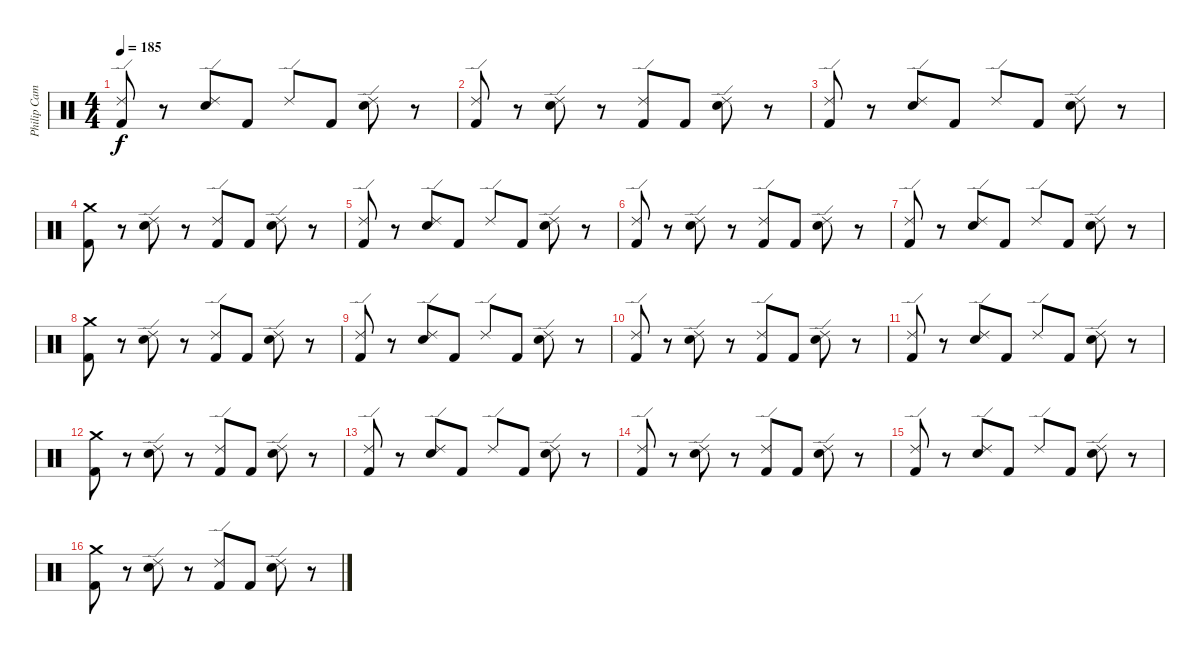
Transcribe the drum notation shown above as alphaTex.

\track ("Philip Campbell" "Philip Cam") {instrument percussion}
\staff {score}
\articulation defaults
\ts (4 4)
\tempo 185
\clef neutral
\ks c
("Ride (edge) 2" "Kick (hit) 2").8{dy f} r.8 ("Ride (edge) 2" "Electric Snare (hit)").8 "Kick (hit) 2".8 "Ride (edge) 2".8 "Kick (hit) 2".8 ("Ride (edge) 2" "Electric Snare (hit)").8 r.8 |
("Ride (edge) 2" "Kick (hit) 2").8 r.8 ("Ride (edge) 2" "Electric Snare (hit)").8 r.8 ("Ride (edge) 2" "Kick (hit) 2").8 "Kick (hit) 2".8 ("Ride (edge) 2" "Electric Snare (hit)").8 r.8 |
("Ride (edge) 2" "Kick (hit) 2").8 r.8 ("Ride (edge) 2" "Electric Snare (hit)").8 "Kick (hit) 2".8 "Ride (edge) 2".8 "Kick (hit) 2".8 ("Ride (edge) 2" "Electric Snare (hit)").8 r.8 |
("Crash medium (hit)" "Kick (hit) 2").8 r.8 ("Ride (edge) 2" "Electric Snare (hit)").8 r.8 ("Ride (edge) 2" "Kick (hit) 2").8 "Kick (hit) 2".8 ("Ride (edge) 2" "Electric Snare (hit)").8 r.8 |
("Ride (edge) 2" "Kick (hit) 2").8 r.8 ("Ride (edge) 2" "Electric Snare (hit)").8 "Kick (hit) 2".8 "Ride (edge) 2".8 "Kick (hit) 2".8 ("Ride (edge) 2" "Electric Snare (hit)").8 r.8 |
("Ride (edge) 2" "Kick (hit) 2").8 r.8 ("Ride (edge) 2" "Electric Snare (hit)").8 r.8 ("Ride (edge) 2" "Kick (hit) 2").8 "Kick (hit) 2".8 ("Ride (edge) 2" "Electric Snare (hit)").8 r.8 |
("Ride (edge) 2" "Kick (hit) 2").8 r.8 ("Ride (edge) 2" "Electric Snare (hit)").8 "Kick (hit) 2".8 "Ride (edge) 2".8 "Kick (hit) 2".8 ("Ride (edge) 2" "Electric Snare (hit)").8 r.8 |
("Crash medium (hit)" "Kick (hit) 2").8 r.8 ("Ride (edge) 2" "Electric Snare (hit)").8 r.8 ("Ride (edge) 2" "Kick (hit) 2").8 "Kick (hit) 2".8 ("Ride (edge) 2" "Electric Snare (hit)").8 r.8 |
("Ride (edge) 2" "Kick (hit) 2").8 r.8 ("Ride (edge) 2" "Electric Snare (hit)").8 "Kick (hit) 2".8 "Ride (edge) 2".8 "Kick (hit) 2".8 ("Ride (edge) 2" "Electric Snare (hit)").8 r.8 |
("Ride (edge) 2" "Kick (hit) 2").8 r.8 ("Ride (edge) 2" "Electric Snare (hit)").8 r.8 ("Ride (edge) 2" "Kick (hit) 2").8 "Kick (hit) 2".8 ("Ride (edge) 2" "Electric Snare (hit)").8 r.8 |
("Ride (edge) 2" "Kick (hit) 2").8 r.8 ("Ride (edge) 2" "Electric Snare (hit)").8 "Kick (hit) 2".8 "Ride (edge) 2".8 "Kick (hit) 2".8 ("Ride (edge) 2" "Electric Snare (hit)").8 r.8 |
("Crash medium (hit)" "Kick (hit) 2").8 r.8 ("Ride (edge) 2" "Electric Snare (hit)").8 r.8 ("Ride (edge) 2" "Kick (hit) 2").8 "Kick (hit) 2".8 ("Ride (edge) 2" "Electric Snare (hit)").8 r.8 |
("Ride (edge) 2" "Kick (hit) 2").8 r.8 ("Ride (edge) 2" "Electric Snare (hit)").8 "Kick (hit) 2".8 "Ride (edge) 2".8 "Kick (hit) 2".8 ("Ride (edge) 2" "Electric Snare (hit)").8 r.8 |
("Ride (edge) 2" "Kick (hit) 2").8 r.8 ("Ride (edge) 2" "Electric Snare (hit)").8 r.8 ("Ride (edge) 2" "Kick (hit) 2").8 "Kick (hit) 2".8 ("Ride (edge) 2" "Electric Snare (hit)").8 r.8 |
("Ride (edge) 2" "Kick (hit) 2").8 r.8 ("Ride (edge) 2" "Electric Snare (hit)").8 "Kick (hit) 2".8 "Ride (edge) 2".8 "Kick (hit) 2".8 ("Ride (edge) 2" "Electric Snare (hit)").8 r.8 |
("Crash medium (hit)" "Kick (hit) 2").8 r.8 ("Ride (edge) 2" "Electric Snare (hit)").8 r.8 ("Ride (edge) 2" "Kick (hit) 2").8 "Kick (hit) 2".8 ("Ride (edge) 2" "Electric Snare (hit)").8 r.8
